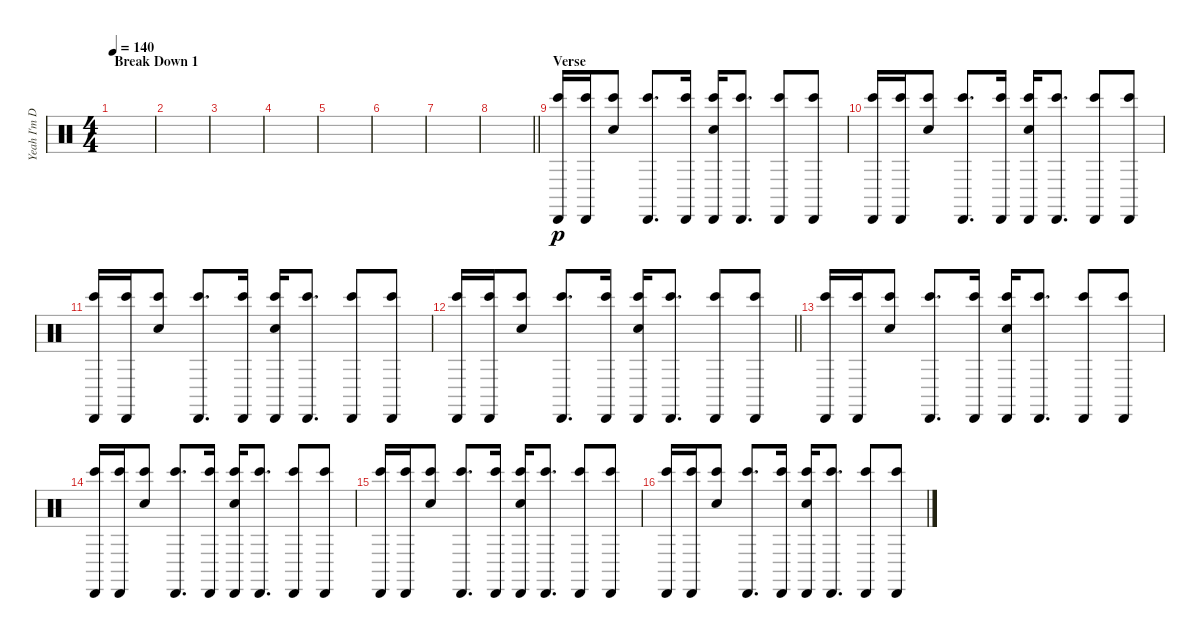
\track ("Yeah I'm Doing Too Much..." "Yeah I'm D") {instrument percussion}
\staff {score}
\articulation defaults
\ts (4 4)
\section ("" "Break Down 1")
\tempo 140
\clef neutral
\ks c
|
|
|
|
|
|
|
\barLineRight lightlight
|
\section ("" "Verse")
("Bongo High (hit)" "Cabasa (hit)").16{dy p} ("Bongo High (hit)" "Cabasa (hit)").16 ("Bongo High (hit)" "Hand Clap (hit)").8 ("Bongo High (hit)" "Cabasa (hit)").8{d} ("Bongo High (hit)" "Cabasa (hit)").16 ("Bongo High (hit)" "Cabasa (hit)" "Hand Clap (hit)").16 ("Bongo High (hit)" "Cabasa (hit)").8{d} ("Bongo High (hit)" "Cabasa (hit)").8 ("Bongo High (hit)" "Cabasa (hit)").8 |
("Bongo High (hit)" "Cabasa (hit)").16 ("Bongo High (hit)" "Cabasa (hit)").16 ("Bongo High (hit)" "Hand Clap (hit)").8 ("Bongo High (hit)" "Cabasa (hit)").8{d} ("Bongo High (hit)" "Cabasa (hit)").16 ("Bongo High (hit)" "Cabasa (hit)" "Hand Clap (hit)").16 ("Bongo High (hit)" "Cabasa (hit)").8{d} ("Bongo High (hit)" "Cabasa (hit)").8 ("Bongo High (hit)" "Cabasa (hit)").8 |
("Bongo High (hit)" "Cabasa (hit)").16 ("Bongo High (hit)" "Cabasa (hit)").16 ("Bongo High (hit)" "Hand Clap (hit)").8 ("Bongo High (hit)" "Cabasa (hit)").8{d} ("Bongo High (hit)" "Cabasa (hit)").16 ("Bongo High (hit)" "Cabasa (hit)" "Hand Clap (hit)").16 ("Bongo High (hit)" "Cabasa (hit)").8{d} ("Bongo High (hit)" "Cabasa (hit)").8 ("Bongo High (hit)" "Cabasa (hit)").8 |
\barLineRight lightlight
("Bongo High (hit)" "Cabasa (hit)").16 ("Bongo High (hit)" "Cabasa (hit)").16 ("Bongo High (hit)" "Hand Clap (hit)").8 ("Bongo High (hit)" "Cabasa (hit)").8{d} ("Bongo High (hit)" "Cabasa (hit)").16 ("Bongo High (hit)" "Cabasa (hit)" "Hand Clap (hit)").16 ("Bongo High (hit)" "Cabasa (hit)").8{d} ("Bongo High (hit)" "Cabasa (hit)").8 ("Bongo High (hit)" "Cabasa (hit)").8 |
("Bongo High (hit)" "Cabasa (hit)").16 ("Bongo High (hit)" "Cabasa (hit)").16 ("Bongo High (hit)" "Hand Clap (hit)").8 ("Bongo High (hit)" "Cabasa (hit)").8{d} ("Bongo High (hit)" "Cabasa (hit)").16 ("Bongo High (hit)" "Cabasa (hit)" "Hand Clap (hit)").16 ("Bongo High (hit)" "Cabasa (hit)").8{d} ("Bongo High (hit)" "Cabasa (hit)").8 ("Bongo High (hit)" "Cabasa (hit)").8 |
("Bongo High (hit)" "Cabasa (hit)").16 ("Bongo High (hit)" "Cabasa (hit)").16 ("Bongo High (hit)" "Hand Clap (hit)").8 ("Bongo High (hit)" "Cabasa (hit)").8{d} ("Bongo High (hit)" "Cabasa (hit)").16 ("Bongo High (hit)" "Cabasa (hit)" "Hand Clap (hit)").16 ("Bongo High (hit)" "Cabasa (hit)").8{d} ("Bongo High (hit)" "Cabasa (hit)").8 ("Bongo High (hit)" "Cabasa (hit)").8 |
("Bongo High (hit)" "Cabasa (hit)").16 ("Bongo High (hit)" "Cabasa (hit)").16 ("Bongo High (hit)" "Hand Clap (hit)").8 ("Bongo High (hit)" "Cabasa (hit)").8{d} ("Bongo High (hit)" "Cabasa (hit)").16 ("Bongo High (hit)" "Cabasa (hit)" "Hand Clap (hit)").16 ("Bongo High (hit)" "Cabasa (hit)").8{d} ("Bongo High (hit)" "Cabasa (hit)").8 ("Bongo High (hit)" "Cabasa (hit)").8 |
("Bongo High (hit)" "Cabasa (hit)").16 ("Bongo High (hit)" "Cabasa (hit)").16 ("Bongo High (hit)" "Hand Clap (hit)").8 ("Bongo High (hit)" "Cabasa (hit)").8{d} ("Bongo High (hit)" "Cabasa (hit)").16 ("Bongo High (hit)" "Cabasa (hit)" "Hand Clap (hit)").16 ("Bongo High (hit)" "Cabasa (hit)").8{d} ("Bongo High (hit)" "Cabasa (hit)").8 ("Bongo High (hit)" "Cabasa (hit)").8
